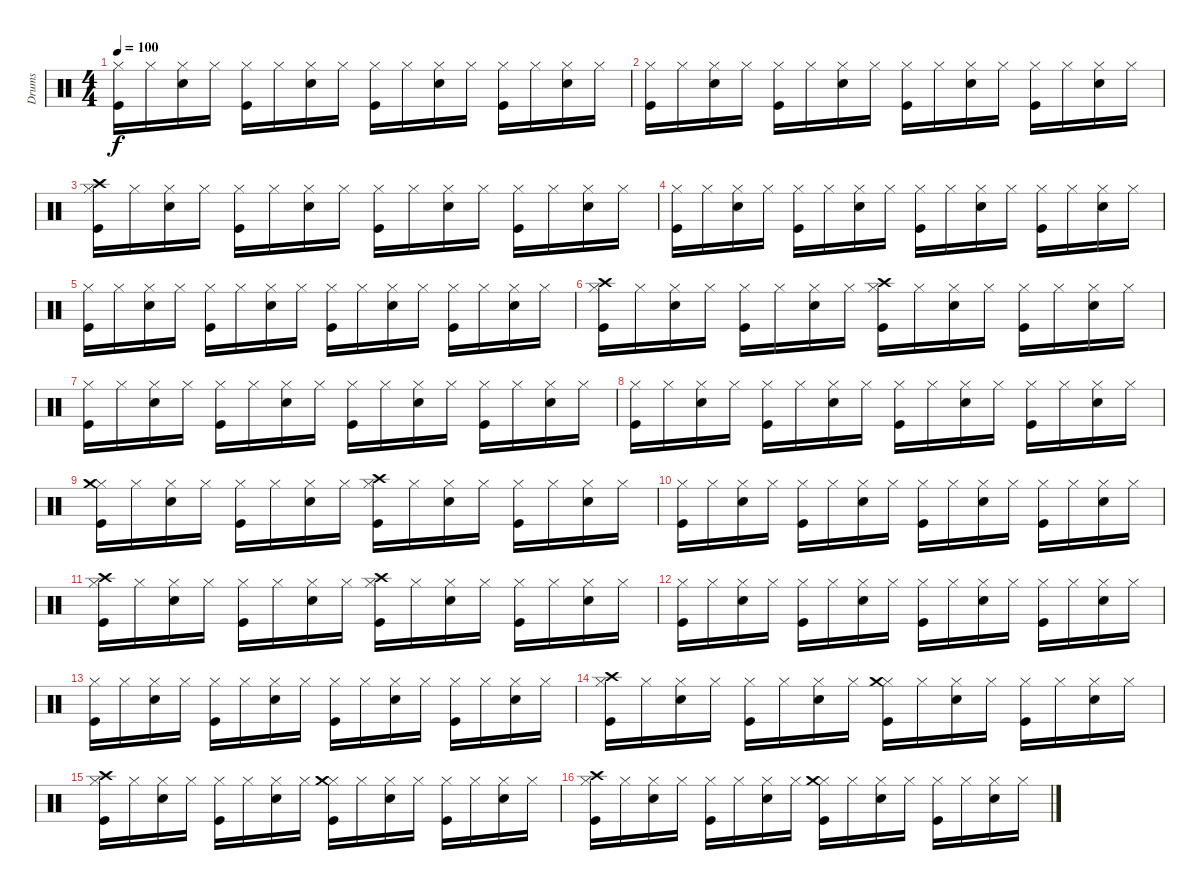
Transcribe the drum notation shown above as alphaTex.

\track ("Drums" "Drums") {instrument percussion}
\staff {score}
\articulation defaults
\ts (4 4)
\tempo 100
\clef neutral
\ks c
("Kick (hit)" "Hi-Hat (closed)").16{dy f} "Hi-Hat (closed)".16 ("Snare (hit) 2" "Hi-Hat (closed)").16 "Hi-Hat (closed)".16 ("Kick (hit)" "Hi-Hat (closed)").16 "Hi-Hat (closed)".16 ("Snare (hit) 2" "Hi-Hat (closed)").16 "Hi-Hat (closed)".16 ("Kick (hit)" "Hi-Hat (closed)").16 "Hi-Hat (closed)".16 ("Snare (hit) 2" "Hi-Hat (closed)").16 "Hi-Hat (closed)".16 ("Kick (hit)" "Hi-Hat (closed)").16 "Hi-Hat (closed)".16 ("Snare (hit) 2" "Hi-Hat (closed)").16 "Hi-Hat (closed)".16 |
("Kick (hit)" "Hi-Hat (closed)").16 "Hi-Hat (closed)".16 ("Snare (hit) 2" "Hi-Hat (closed)").16 "Hi-Hat (closed)".16 ("Kick (hit)" "Hi-Hat (closed)").16 "Hi-Hat (closed)".16 ("Snare (hit) 2" "Hi-Hat (closed)").16 "Hi-Hat (closed)".16 ("Kick (hit)" "Hi-Hat (closed)").16 "Hi-Hat (closed)".16 ("Snare (hit) 2" "Hi-Hat (closed)").16 "Hi-Hat (closed)".16 ("Kick (hit)" "Hi-Hat (closed)").16 "Hi-Hat (closed)".16 ("Snare (hit) 2" "Hi-Hat (closed)").16 "Hi-Hat (closed)".16 |
("Kick (hit)" "Hi-Hat (closed)" "Crash high (hit)").16 "Hi-Hat (closed)".16 ("Snare (hit) 2" "Hi-Hat (closed)").16 "Hi-Hat (closed)".16 ("Kick (hit)" "Hi-Hat (closed)").16 "Hi-Hat (closed)".16 ("Snare (hit) 2" "Hi-Hat (closed)").16 "Hi-Hat (closed)".16 ("Kick (hit)" "Hi-Hat (closed)").16 "Hi-Hat (closed)".16 ("Snare (hit) 2" "Hi-Hat (closed)").16 "Hi-Hat (closed)".16 ("Kick (hit)" "Hi-Hat (closed)").16 "Hi-Hat (closed)".16 ("Snare (hit) 2" "Hi-Hat (closed)").16 "Hi-Hat (closed)".16 |
("Kick (hit)" "Hi-Hat (closed)").16 "Hi-Hat (closed)".16 ("Snare (hit) 2" "Hi-Hat (closed)").16 "Hi-Hat (closed)".16 ("Kick (hit)" "Hi-Hat (closed)").16 "Hi-Hat (closed)".16 ("Snare (hit) 2" "Hi-Hat (closed)").16 "Hi-Hat (closed)".16 ("Kick (hit)" "Hi-Hat (closed)").16 "Hi-Hat (closed)".16 ("Snare (hit) 2" "Hi-Hat (closed)").16 "Hi-Hat (closed)".16 ("Kick (hit)" "Hi-Hat (closed)").16 "Hi-Hat (closed)".16 ("Snare (hit) 2" "Hi-Hat (closed)").16 "Hi-Hat (closed)".16 |
("Kick (hit)" "Hi-Hat (closed)").16 "Hi-Hat (closed)".16 ("Snare (hit) 2" "Hi-Hat (closed)").16 "Hi-Hat (closed)".16 ("Kick (hit)" "Hi-Hat (closed)").16 "Hi-Hat (closed)".16 ("Snare (hit) 2" "Hi-Hat (closed)").16 "Hi-Hat (closed)".16 ("Kick (hit)" "Hi-Hat (closed)").16 "Hi-Hat (closed)".16 ("Snare (hit) 2" "Hi-Hat (closed)").16 "Hi-Hat (closed)".16 ("Kick (hit)" "Hi-Hat (closed)").16 "Hi-Hat (closed)".16 ("Snare (hit) 2" "Hi-Hat (closed)").16 "Hi-Hat (closed)".16 |
("Kick (hit)" "Hi-Hat (closed)" "Crash high (hit)").16 "Hi-Hat (closed)".16 ("Snare (hit) 2" "Hi-Hat (closed)").16 "Hi-Hat (closed)".16 ("Kick (hit)" "Hi-Hat (closed)").16 "Hi-Hat (closed)".16 ("Snare (hit) 2" "Hi-Hat (closed)").16 "Hi-Hat (closed)".16 ("Kick (hit)" "Hi-Hat (closed)" "Crash high (hit)").16 "Hi-Hat (closed)".16 ("Snare (hit) 2" "Hi-Hat (closed)").16 "Hi-Hat (closed)".16 ("Kick (hit)" "Hi-Hat (closed)").16 "Hi-Hat (closed)".16 ("Snare (hit) 2" "Hi-Hat (closed)").16 "Hi-Hat (closed)".16 |
("Kick (hit)" "Hi-Hat (closed)").16 "Hi-Hat (closed)".16 ("Snare (hit) 2" "Hi-Hat (closed)").16 "Hi-Hat (closed)".16 ("Kick (hit)" "Hi-Hat (closed)").16 "Hi-Hat (closed)".16 ("Snare (hit) 2" "Hi-Hat (closed)").16 "Hi-Hat (closed)".16 ("Kick (hit)" "Hi-Hat (closed)").16 "Hi-Hat (closed)".16 ("Snare (hit) 2" "Hi-Hat (closed)").16 "Hi-Hat (closed)".16 ("Kick (hit)" "Hi-Hat (closed)").16 "Hi-Hat (closed)".16 ("Snare (hit) 2" "Hi-Hat (closed)").16 "Hi-Hat (closed)".16 |
("Kick (hit)" "Hi-Hat (closed)").16 "Hi-Hat (closed)".16 ("Snare (hit) 2" "Hi-Hat (closed)").16 "Hi-Hat (closed)".16 ("Kick (hit)" "Hi-Hat (closed)").16 "Hi-Hat (closed)".16 ("Snare (hit) 2" "Hi-Hat (closed)").16 "Hi-Hat (closed)".16 ("Kick (hit)" "Hi-Hat (closed)").16 "Hi-Hat (closed)".16 ("Snare (hit) 2" "Hi-Hat (closed)").16 "Hi-Hat (closed)".16 ("Kick (hit)" "Hi-Hat (closed)").16 "Hi-Hat (closed)".16 ("Snare (hit) 2" "Hi-Hat (closed)").16 "Hi-Hat (closed)".16 |
("Kick (hit)" "Hi-Hat (closed)" "Crash medium (hit)").16 "Hi-Hat (closed)".16 ("Snare (hit) 2" "Hi-Hat (closed)").16 "Hi-Hat (closed)".16 ("Kick (hit)" "Hi-Hat (closed)").16 "Hi-Hat (closed)".16 ("Snare (hit) 2" "Hi-Hat (closed)").16 "Hi-Hat (closed)".16 ("Kick (hit)" "Hi-Hat (closed)" "Crash high (hit)").16 "Hi-Hat (closed)".16 ("Snare (hit) 2" "Hi-Hat (closed)").16 "Hi-Hat (closed)".16 ("Kick (hit)" "Hi-Hat (closed)").16 "Hi-Hat (closed)".16 ("Snare (hit) 2" "Hi-Hat (closed)").16 "Hi-Hat (closed)".16 |
("Kick (hit)" "Hi-Hat (closed)").16 "Hi-Hat (closed)".16 ("Snare (hit) 2" "Hi-Hat (closed)").16 "Hi-Hat (closed)".16 ("Kick (hit)" "Hi-Hat (closed)").16 "Hi-Hat (closed)".16 ("Snare (hit) 2" "Hi-Hat (closed)").16 "Hi-Hat (closed)".16 ("Kick (hit)" "Hi-Hat (closed)").16 "Hi-Hat (closed)".16 ("Snare (hit) 2" "Hi-Hat (closed)").16 "Hi-Hat (closed)".16 ("Kick (hit)" "Hi-Hat (closed)").16 "Hi-Hat (closed)".16 ("Snare (hit) 2" "Hi-Hat (closed)").16 "Hi-Hat (closed)".16 |
("Kick (hit)" "Hi-Hat (closed)" "Crash high (hit)").16 "Hi-Hat (closed)".16 ("Snare (hit) 2" "Hi-Hat (closed)").16 "Hi-Hat (closed)".16 ("Kick (hit)" "Hi-Hat (closed)").16 "Hi-Hat (closed)".16 ("Snare (hit) 2" "Hi-Hat (closed)").16 "Hi-Hat (closed)".16 ("Kick (hit)" "Hi-Hat (closed)" "Crash high (hit)").16 "Hi-Hat (closed)".16 ("Snare (hit) 2" "Hi-Hat (closed)").16 "Hi-Hat (closed)".16 ("Kick (hit)" "Hi-Hat (closed)").16 "Hi-Hat (closed)".16 ("Snare (hit) 2" "Hi-Hat (closed)").16 "Hi-Hat (closed)".16 |
("Kick (hit)" "Hi-Hat (closed)").16 "Hi-Hat (closed)".16 ("Snare (hit) 2" "Hi-Hat (closed)").16 "Hi-Hat (closed)".16 ("Kick (hit)" "Hi-Hat (closed)").16 "Hi-Hat (closed)".16 ("Snare (hit) 2" "Hi-Hat (closed)").16 "Hi-Hat (closed)".16 ("Kick (hit)" "Hi-Hat (closed)").16 "Hi-Hat (closed)".16 ("Snare (hit) 2" "Hi-Hat (closed)").16 "Hi-Hat (closed)".16 ("Kick (hit)" "Hi-Hat (closed)").16 "Hi-Hat (closed)".16 ("Snare (hit) 2" "Hi-Hat (closed)").16 "Hi-Hat (closed)".16 |
("Kick (hit)" "Hi-Hat (closed)").16 "Hi-Hat (closed)".16 ("Snare (hit) 2" "Hi-Hat (closed)").16 "Hi-Hat (closed)".16 ("Kick (hit)" "Hi-Hat (closed)").16 "Hi-Hat (closed)".16 ("Snare (hit) 2" "Hi-Hat (closed)").16 "Hi-Hat (closed)".16 ("Kick (hit)" "Hi-Hat (closed)").16 "Hi-Hat (closed)".16 ("Snare (hit) 2" "Hi-Hat (closed)").16 "Hi-Hat (closed)".16 ("Kick (hit)" "Hi-Hat (closed)").16 "Hi-Hat (closed)".16 ("Snare (hit) 2" "Hi-Hat (closed)").16 "Hi-Hat (closed)".16 |
("Kick (hit)" "Hi-Hat (closed)" "Crash high (hit)").16 "Hi-Hat (closed)".16 ("Snare (hit) 2" "Hi-Hat (closed)").16 "Hi-Hat (closed)".16 ("Kick (hit)" "Hi-Hat (closed)").16 "Hi-Hat (closed)".16 ("Snare (hit) 2" "Hi-Hat (closed)").16 "Hi-Hat (closed)".16 ("Kick (hit)" "Hi-Hat (closed)" "Crash medium (hit)").16 "Hi-Hat (closed)".16 ("Snare (hit) 2" "Hi-Hat (closed)").16 "Hi-Hat (closed)".16 ("Kick (hit)" "Hi-Hat (closed)").16 "Hi-Hat (closed)".16 ("Snare (hit) 2" "Hi-Hat (closed)").16 "Hi-Hat (closed)".16 |
("Kick (hit)" "Hi-Hat (closed)" "Crash high (hit)").16 "Hi-Hat (closed)".16 ("Snare (hit) 2" "Hi-Hat (closed)").16 "Hi-Hat (closed)".16 ("Kick (hit)" "Hi-Hat (closed)").16 "Hi-Hat (closed)".16 ("Snare (hit) 2" "Hi-Hat (closed)").16 "Hi-Hat (closed)".16 ("Kick (hit)" "Hi-Hat (closed)" "Crash medium (hit)").16 "Hi-Hat (closed)".16 ("Snare (hit) 2" "Hi-Hat (closed)").16 "Hi-Hat (closed)".16 ("Kick (hit)" "Hi-Hat (closed)").16 "Hi-Hat (closed)".16 ("Snare (hit) 2" "Hi-Hat (closed)").16 "Hi-Hat (closed)".16 |
("Kick (hit)" "Hi-Hat (closed)" "Crash high (hit)").16 "Hi-Hat (closed)".16 ("Snare (hit) 2" "Hi-Hat (closed)").16 "Hi-Hat (closed)".16 ("Kick (hit)" "Hi-Hat (closed)").16 "Hi-Hat (closed)".16 ("Snare (hit) 2" "Hi-Hat (closed)").16 "Hi-Hat (closed)".16 ("Kick (hit)" "Hi-Hat (closed)" "Crash medium (hit)").16 "Hi-Hat (closed)".16 ("Snare (hit) 2" "Hi-Hat (closed)").16 "Hi-Hat (closed)".16 ("Kick (hit)" "Hi-Hat (closed)").16 "Hi-Hat (closed)".16 ("Snare (hit) 2" "Hi-Hat (closed)").16 "Hi-Hat (closed)".16
